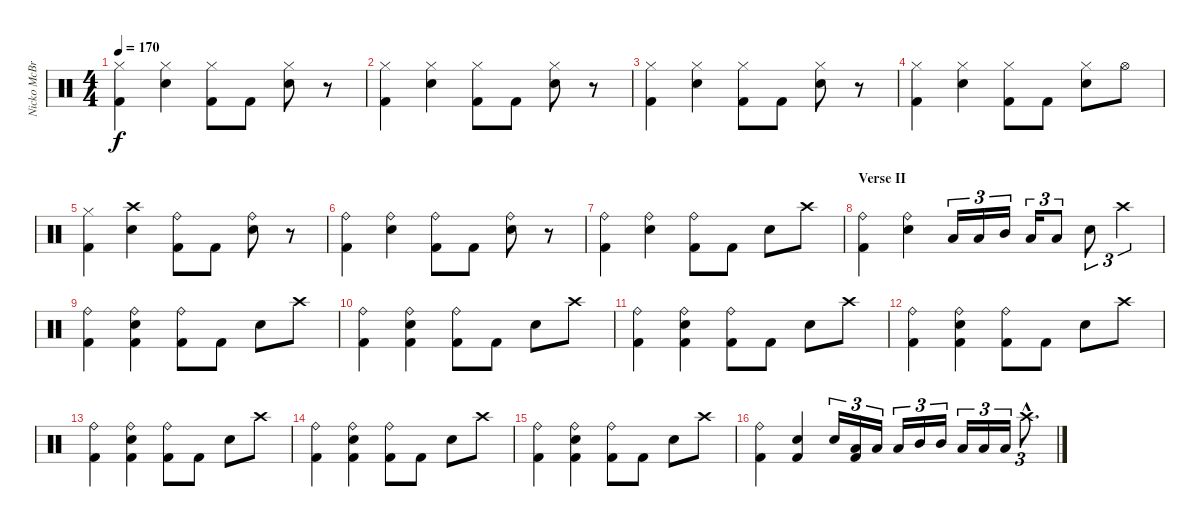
\track ("Nicko McBrain" "Nicko McBr") {instrument percussion}
\staff {score}
\articulation defaults
\ts (4 4)
\tempo 170
\clef neutral
\ks c
("Hi-Hat (closed)" "Kick (hit) 2").4{dy f} ("Hi-Hat (closed)" "Snare (hit) 2").4 ("Hi-Hat (closed)" "Kick (hit) 2").8 "Kick (hit) 2".8 ("Hi-Hat (closed)" "Snare (hit) 2").8 r.8 |
("Hi-Hat (closed)" "Kick (hit) 2").4 ("Hi-Hat (closed)" "Snare (hit) 2").4 ("Hi-Hat (closed)" "Kick (hit) 2").8 "Kick (hit) 2".8 ("Hi-Hat (closed)" "Snare (hit) 2").8 r.8 |
("Hi-Hat (closed)" "Kick (hit) 2").4 ("Hi-Hat (closed)" "Snare (hit) 2").4 ("Hi-Hat (closed)" "Kick (hit) 2").8 "Kick (hit) 2".8 ("Hi-Hat (closed)" "Snare (hit) 2").8 r.8 |
("Hi-Hat (closed)" "Kick (hit) 2").4 ("Hi-Hat (closed)" "Snare (hit) 2").4 ("Hi-Hat (closed)" "Kick (hit) 2").8 "Kick (hit) 2".8 ("Hi-Hat (closed)" "Snare (hit) 2").8 "Hi-Hat (open)".8 |
("Hi-Hat (closed)" "Kick (hit) 2").4 ("Crash high (hit)" "Snare (hit) 2").4 ("Ride (bell)" "Kick (hit) 2").8 "Kick (hit) 2".8 ("Ride (bell)" "Snare (hit) 2").8 r.8 |
("Ride (bell)" "Kick (hit) 2").4 ("Ride (bell)" "Snare (hit) 2").4 ("Ride (bell)" "Kick (hit) 2").8 "Kick (hit) 2".8 ("Ride (bell)" "Snare (hit) 2").8 r.8 |
("Ride (bell)" "Kick (hit) 2").4 ("Ride (bell)" "Snare (hit) 2").4 ("Ride (bell)" "Kick (hit) 2").8 "Kick (hit) 2".8 "Snare (hit) 2".8 "Crash high (hit)".8 |
\section ("" "Verse II")
("Ride (bell)" "Kick (hit) 2").4 ("Ride (bell)" "Snare (hit) 2").4 "Low Tom (hit)".16{tu (3 2)} "Low Tom (hit)".16{tu (3 2)} "Mid Tom (hit)".16{tu (3 2)} "Low Tom (hit)".16{tu (3 2)} "Low Tom (hit)".8{tu (3 2)} "Snare (hit) 2".8{tu (3 2)} "Crash high (hit)".4{tu (3 2)} |
("Ride (bell)" "Kick (hit) 2").4 ("Ride (bell)" "Snare (hit) 2" "Kick (hit) 2").4 ("Ride (bell)" "Kick (hit) 2").8 "Kick (hit) 2".8 "Snare (hit) 2".8 "Crash high (hit)".8 |
("Ride (bell)" "Kick (hit) 2").4 ("Ride (bell)" "Snare (hit) 2" "Kick (hit) 2").4 ("Ride (bell)" "Kick (hit) 2").8 "Kick (hit) 2".8 "Snare (hit) 2".8 "Crash high (hit)".8 |
("Ride (bell)" "Kick (hit) 2").4 ("Ride (bell)" "Snare (hit) 2" "Kick (hit) 2").4 ("Ride (bell)" "Kick (hit) 2").8 "Kick (hit) 2".8 "Snare (hit) 2".8 "Crash high (hit)".8 |
("Ride (bell)" "Kick (hit) 2").4 ("Ride (bell)" "Snare (hit) 2" "Kick (hit) 2").4 ("Ride (bell)" "Kick (hit) 2").8 "Kick (hit) 2".8 "Snare (hit) 2".8 "Crash high (hit)".8 |
("Ride (bell)" "Kick (hit) 2").4 ("Ride (bell)" "Snare (hit) 2" "Kick (hit) 2").4 ("Ride (bell)" "Kick (hit) 2").8 "Kick (hit) 2".8 "Snare (hit) 2".8 "Crash high (hit)".8 |
("Ride (bell)" "Kick (hit) 2").4 ("Ride (bell)" "Snare (hit) 2" "Kick (hit) 2").4 ("Ride (bell)" "Kick (hit) 2").8 "Kick (hit) 2".8 "Snare (hit) 2".8 "Crash high (hit)".8 |
("Ride (bell)" "Kick (hit) 2").4 ("Ride (bell)" "Snare (hit) 2" "Kick (hit) 2").4 ("Ride (bell)" "Kick (hit) 2").8 "Kick (hit) 2".8 "Snare (hit) 2".8 "Crash high (hit)".8 |
("Ride (bell)" "Kick (hit) 2").4 ("Snare (hit) 2" "Kick (hit) 2").4 "Snare (hit) 2".16{tu (3 2)} ("Low Tom (hit)" "Kick (hit) 2").16{tu (3 2)} "Low Tom (hit)".16{tu (3 2)} "Low Tom (hit)".16{tu (3 2)} "Mid Tom (hit)".16{tu (3 2)} "Mid Tom (hit)".16{tu (3 2)} "Low Tom (hit)".16{tu (3 2)} "Low Tom (hit)".16{tu (3 2)} "Low Tom (hit)".16{tu (3 2)} "Crash high (hit)"{hac}.8{d tu (3 2)}
